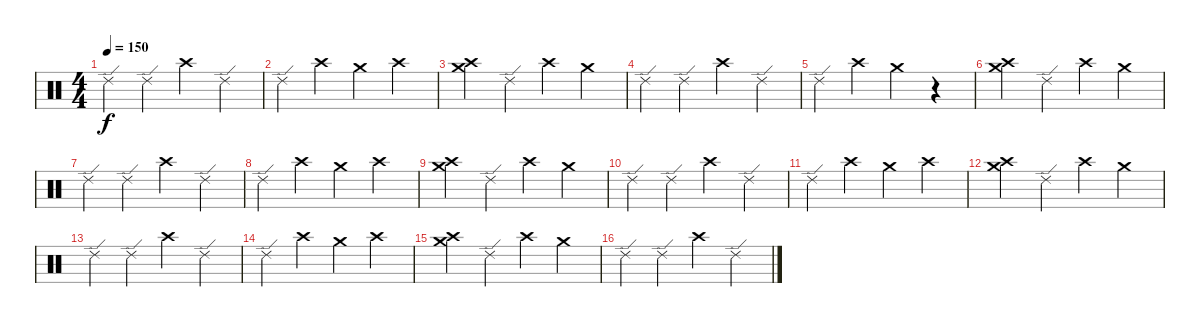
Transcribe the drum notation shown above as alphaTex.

\track "" {instrument percussion}
\staff {score}
\articulation defaults
\ts (4 4)
\tempo 150
\clef neutral
\ks c "Ride (edge) 2".4{dy f} "Ride (edge) 2".4 "Crash high (hit)".4 "Ride (edge) 2".4
|
"Ride (edge) 2".4 "Crash high (hit)".4 "Crash medium (hit)".4 "Crash high (hit)".4 |
("Crash medium (hit)" "Crash high (hit)").4 "Ride (edge) 2".4 "Crash high (hit)".4 "Crash medium (hit)".4 |
"Ride (edge) 2".4 "Ride (edge) 2".4 "Crash high (hit)".4 "Ride (edge) 2".4 |
"Ride (edge) 2".4 "Crash high (hit)".4 "Crash medium (hit)".4 r.4 |
("Crash medium (hit)" "Crash high (hit)").4 "Ride (edge) 2".4 "Crash high (hit)".4 "Crash medium (hit)".4 |
"Ride (edge) 2".4 "Ride (edge) 2".4 "Crash high (hit)".4 "Ride (edge) 2".4 |
"Ride (edge) 2".4 "Crash high (hit)".4 "Crash medium (hit)".4 "Crash high (hit)".4 |
("Crash medium (hit)" "Crash high (hit)").4 "Ride (edge) 2".4 "Crash high (hit)".4 "Crash medium (hit)".4 |
"Ride (edge) 2".4 "Ride (edge) 2".4 "Crash high (hit)".4 "Ride (edge) 2".4 |
"Ride (edge) 2".4 "Crash high (hit)".4 "Crash medium (hit)".4 "Crash high (hit)".4 |
("Crash medium (hit)" "Crash high (hit)").4 "Ride (edge) 2".4 "Crash high (hit)".4 "Crash medium (hit)".4 |
"Ride (edge) 2".4 "Ride (edge) 2".4 "Crash high (hit)".4 "Ride (edge) 2".4 |
"Ride (edge) 2".4 "Crash high (hit)".4 "Crash medium (hit)".4 "Crash high (hit)".4 |
("Crash medium (hit)" "Crash high (hit)").4 "Ride (edge) 2".4 "Crash high (hit)".4 "Crash medium (hit)".4 |
"Ride (edge) 2".4 "Ride (edge) 2".4 "Crash high (hit)".4 "Ride (edge) 2".4
